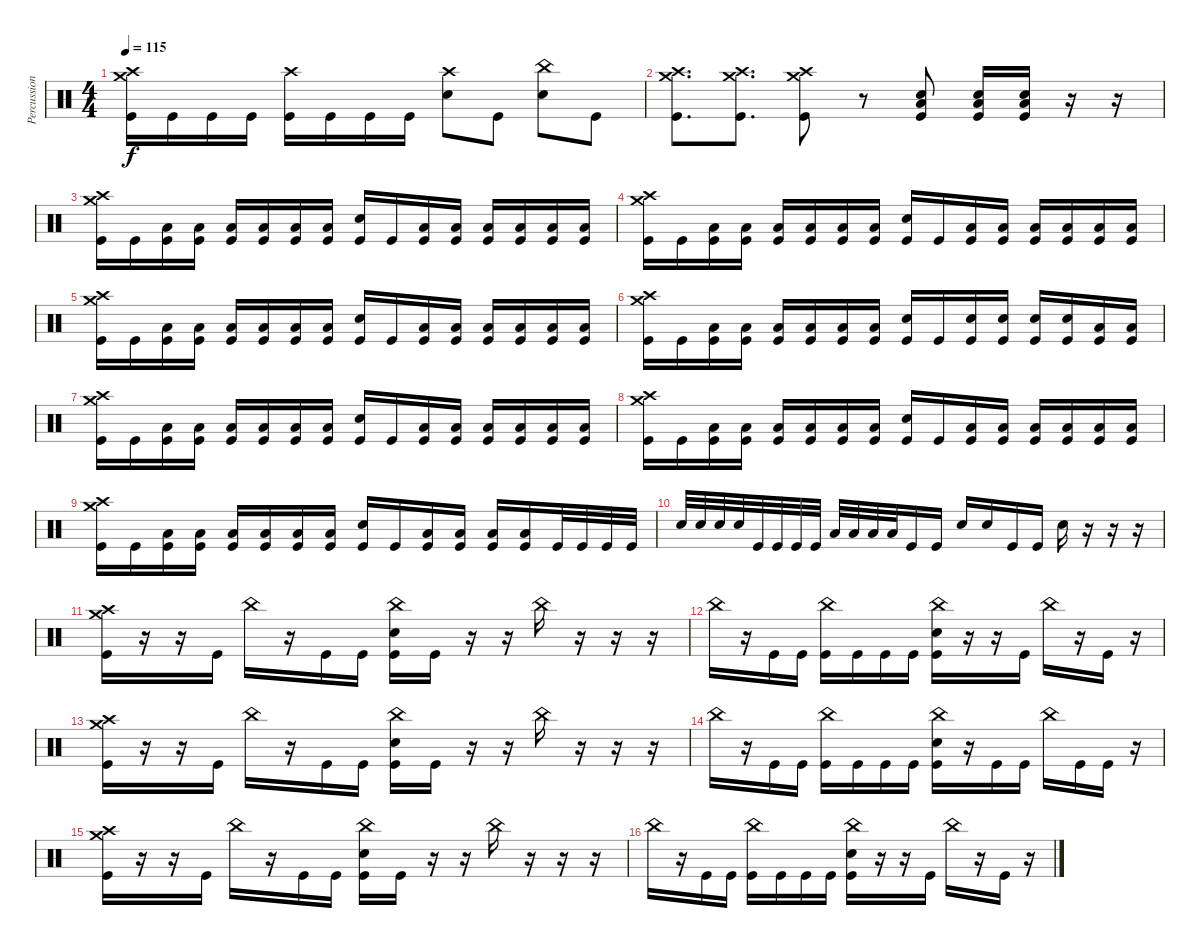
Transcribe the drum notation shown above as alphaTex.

\track ("Percussion" "Percussion") {instrument percussion}
\staff {score}
\articulation defaults
\ts (4 4)
\tempo 115
\clef neutral
\ks c
("Crash medium (hit)" "Crash high (hit)" "Kick (hit)").16{dy f} "Kick (hit)".16 "Kick (hit)".16 "Kick (hit)".16 ("Crash high (hit)" "Kick (hit)").16 "Kick (hit)".16 "Kick (hit)".16 "Kick (hit)".16 ("Crash high (hit)" "Snare (hit) 2").8 "Kick (hit)".8 ("China (hit)" "Snare (hit) 2").8 "Kick (hit)".8 |
("Crash medium (hit)" "Crash high (hit)" "Kick (hit)").8{d} ("Crash medium (hit)" "Crash high (hit)" "Kick (hit)").8{d} ("Crash medium (hit)" "Crash high (hit)" "Kick (hit)").8 r.8 ("Snare (hit) 2" "Low Floor Tom (hit)" "Kick (hit)").8 ("Snare (hit) 2" "Low Floor Tom (hit)" "Kick (hit)").16 ("Snare (hit) 2" "Low Floor Tom (hit)" "Kick (hit)").16 r.16 r.16 |
("Crash medium (hit)" "Crash high (hit)" "Kick (hit)").16 "Kick (hit)".16 ("Low Tom (hit)" "Kick (hit)").16 ("Low Tom (hit)" "Kick (hit)").16 ("Low Floor Tom (hit)" "Kick (hit)").16 ("Low Floor Tom (hit)" "Kick (hit)").16 ("Low Floor Tom (hit)" "Kick (hit)").16 ("Low Floor Tom (hit)" "Kick (hit)").16 ("Snare (hit) 2" "Kick (hit)").16 "Kick (hit)".16 ("Low Tom (hit)" "Kick (hit)").16 ("Low Tom (hit)" "Kick (hit)").16 ("Low Floor Tom (hit)" "Kick (hit)").16 ("Low Floor Tom (hit)" "Kick (hit)").16 ("Low Floor Tom (hit)" "Kick (hit)").16 ("Low Floor Tom (hit)" "Kick (hit)").16 |
("Crash medium (hit)" "Crash high (hit)" "Kick (hit)").16 "Kick (hit)".16 ("Low Tom (hit)" "Kick (hit)").16 ("Low Tom (hit)" "Kick (hit)").16 ("Low Floor Tom (hit)" "Kick (hit)").16 ("Low Floor Tom (hit)" "Kick (hit)").16 ("Low Floor Tom (hit)" "Kick (hit)").16 ("Low Floor Tom (hit)" "Kick (hit)").16 ("Snare (hit) 2" "Kick (hit)").16 "Kick (hit)".16 ("Low Tom (hit)" "Kick (hit)").16 ("Low Tom (hit)" "Kick (hit)").16 ("Low Floor Tom (hit)" "Kick (hit)").16 ("Low Floor Tom (hit)" "Kick (hit)").16 ("Low Floor Tom (hit)" "Kick (hit)").16 ("Low Floor Tom (hit)" "Kick (hit)").16 |
("Crash medium (hit)" "Crash high (hit)" "Kick (hit)").16 "Kick (hit)".16 ("Low Tom (hit)" "Kick (hit)").16 ("Low Tom (hit)" "Kick (hit)").16 ("Low Floor Tom (hit)" "Kick (hit)").16 ("Low Floor Tom (hit)" "Kick (hit)").16 ("Low Floor Tom (hit)" "Kick (hit)").16 ("Low Floor Tom (hit)" "Kick (hit)").16 ("Snare (hit) 2" "Kick (hit)").16 "Kick (hit)".16 ("Low Tom (hit)" "Kick (hit)").16 ("Low Tom (hit)" "Kick (hit)").16 ("Low Floor Tom (hit)" "Kick (hit)").16 ("Low Floor Tom (hit)" "Kick (hit)").16 ("Low Floor Tom (hit)" "Kick (hit)").16 ("Low Floor Tom (hit)" "Kick (hit)").16 |
("Crash medium (hit)" "Crash high (hit)" "Kick (hit)").16 "Kick (hit)".16 ("Low Tom (hit)" "Kick (hit)").16 ("Low Tom (hit)" "Kick (hit)").16 ("Low Floor Tom (hit)" "Kick (hit)").16 ("Low Floor Tom (hit)" "Kick (hit)").16 ("Low Floor Tom (hit)" "Kick (hit)").16 ("Low Floor Tom (hit)" "Kick (hit)").16 ("Snare (hit) 2" "Kick (hit)").16 "Kick (hit)".16 ("Snare (hit) 2" "Kick (hit)").16 ("Snare (hit) 2" "Kick (hit)").16 ("Snare (hit) 2" "Kick (hit)").16 ("Snare (hit) 2" "Kick (hit)").16 ("Low Floor Tom (hit)" "Kick (hit)").16 ("Low Floor Tom (hit)" "Kick (hit)").16 |
("Crash medium (hit)" "Crash high (hit)" "Kick (hit)").16 "Kick (hit)".16 ("Low Tom (hit)" "Kick (hit)").16 ("Low Tom (hit)" "Kick (hit)").16 ("Low Floor Tom (hit)" "Kick (hit)").16 ("Low Floor Tom (hit)" "Kick (hit)").16 ("Low Floor Tom (hit)" "Kick (hit)").16 ("Low Floor Tom (hit)" "Kick (hit)").16 ("Snare (hit) 2" "Kick (hit)").16 "Kick (hit)".16 ("Low Tom (hit)" "Kick (hit)").16 ("Low Tom (hit)" "Kick (hit)").16 ("Low Floor Tom (hit)" "Kick (hit)").16 ("Low Floor Tom (hit)" "Kick (hit)").16 ("Low Floor Tom (hit)" "Kick (hit)").16 ("Low Floor Tom (hit)" "Kick (hit)").16 |
("Crash medium (hit)" "Crash high (hit)" "Kick (hit)").16 "Kick (hit)".16 ("Low Tom (hit)" "Kick (hit)").16 ("Low Tom (hit)" "Kick (hit)").16 ("Low Floor Tom (hit)" "Kick (hit)").16 ("Low Floor Tom (hit)" "Kick (hit)").16 ("Low Floor Tom (hit)" "Kick (hit)").16 ("Low Floor Tom (hit)" "Kick (hit)").16 ("Snare (hit) 2" "Kick (hit)").16 "Kick (hit)".16 ("Low Tom (hit)" "Kick (hit)").16 ("Low Tom (hit)" "Kick (hit)").16 ("Low Floor Tom (hit)" "Kick (hit)").16 ("Low Floor Tom (hit)" "Kick (hit)").16 ("Low Floor Tom (hit)" "Kick (hit)").16 ("Low Floor Tom (hit)" "Kick (hit)").16 |
("Crash medium (hit)" "Crash high (hit)" "Kick (hit)").16 "Kick (hit)".16 ("Low Tom (hit)" "Kick (hit)").16 ("Low Tom (hit)" "Kick (hit)").16 ("Low Floor Tom (hit)" "Kick (hit)").16 ("Low Floor Tom (hit)" "Kick (hit)").16 ("Low Floor Tom (hit)" "Kick (hit)").16 ("Low Floor Tom (hit)" "Kick (hit)").16 ("Snare (hit) 2" "Kick (hit)").16 "Kick (hit)".16 ("Low Tom (hit)" "Kick (hit)").16 ("Low Tom (hit)" "Kick (hit)").16 ("Low Floor Tom (hit)" "Kick (hit)").16 ("Low Floor Tom (hit)" "Kick (hit)").16 "Kick (hit)".32 "Kick (hit)".32 "Kick (hit)".32 "Kick (hit)".32 |
"Snare (hit) 2".32 "Snare (hit) 2".32 "Snare (hit) 2".32 "Snare (hit) 2".32 "Kick (hit)".32 "Kick (hit)".32 "Kick (hit)".32 "Kick (hit)".32 "Low Tom (hit)".32 "Low Tom (hit)".32 "Low Tom (hit)".32 "Low Tom (hit)".32 "Kick (hit)".16 "Kick (hit)".16 "Snare (hit) 2".16 "Snare (hit) 2".16 "Kick (hit)".16 "Kick (hit)".16 "Snare (hit) 2".16 r.16 r.16 r.16 |
("Crash medium (hit)" "Crash high (hit)" "Kick (hit)").16 r.16 r.16 "Kick (hit)".16 "China (hit)".16 r.16 "Kick (hit)".16 "Kick (hit)".16 ("China (hit)" "Snare (hit) 2" "Kick (hit)").16 "Kick (hit)".16 r.16 r.16 "China (hit)".16 r.16 r.16 r.16 |
"China (hit)".16 r.16 "Kick (hit)".16 "Kick (hit)".16 ("China (hit)" "Kick (hit)").16 "Kick (hit)".16 "Kick (hit)".16 "Kick (hit)".16 ("China (hit)" "Snare (hit) 2" "Kick (hit)").16 r.16 r.16 "Kick (hit)".16 "China (hit)".16 r.16 "Kick (hit)".16 r.16 |
("Crash medium (hit)" "Crash high (hit)" "Kick (hit)").16 r.16 r.16 "Kick (hit)".16 "China (hit)".16 r.16 "Kick (hit)".16 "Kick (hit)".16 ("China (hit)" "Snare (hit) 2" "Kick (hit)").16 "Kick (hit)".16 r.16 r.16 "China (hit)".16 r.16 r.16 r.16 |
"China (hit)".16 r.16 "Kick (hit)".16 "Kick (hit)".16 ("China (hit)" "Kick (hit)").16 "Kick (hit)".16 "Kick (hit)".16 "Kick (hit)".16 ("China (hit)" "Snare (hit) 2" "Kick (hit)").16 r.16 "Kick (hit)".16 "Kick (hit)".16 "China (hit)".16 "Kick (hit)".16 "Kick (hit)".16 r.16 |
("Crash medium (hit)" "Crash high (hit)" "Kick (hit)").16 r.16 r.16 "Kick (hit)".16 "China (hit)".16 r.16 "Kick (hit)".16 "Kick (hit)".16 ("China (hit)" "Snare (hit) 2" "Kick (hit)").16 "Kick (hit)".16 r.16 r.16 "China (hit)".16 r.16 r.16 r.16 |
"China (hit)".16 r.16 "Kick (hit)".16 "Kick (hit)".16 ("China (hit)" "Kick (hit)").16 "Kick (hit)".16 "Kick (hit)".16 "Kick (hit)".16 ("China (hit)" "Snare (hit) 2" "Kick (hit)").16 r.16 r.16 "Kick (hit)".16 "China (hit)".16 r.16 "Kick (hit)".16 r.16
